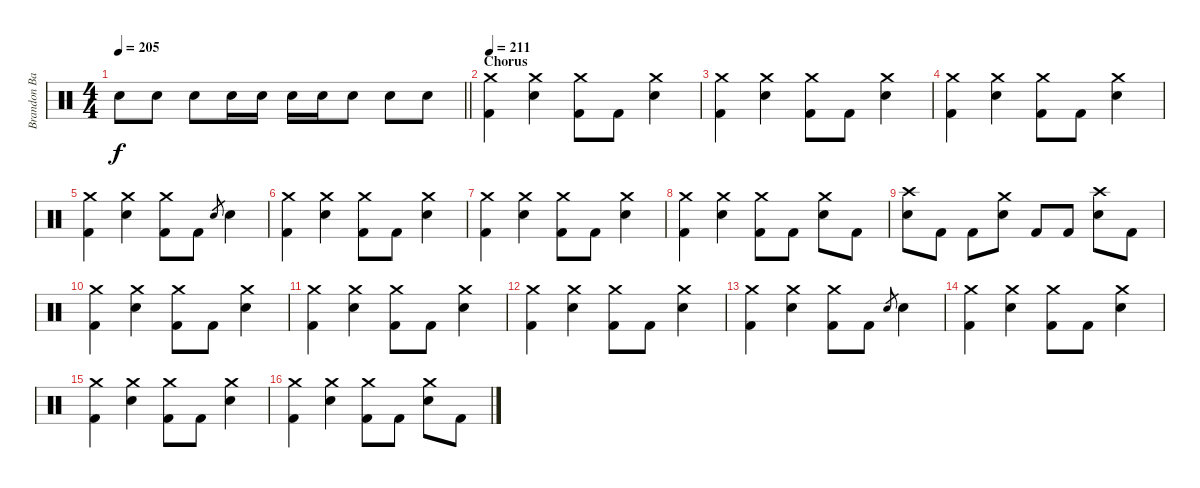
\track ("Brandon Barnes - Drums" "Brandon Ba") {instrument percussion}
\staff {score}
\articulation defaults
\ts (4 4)
\tempo 205
\clef neutral
\barLineRight lightlight
\ks c "Electric Snare (hit)".8{dy f volume 10} "Electric Snare (hit)".8 "Electric Snare (hit)".8{volume 11} "Electric Snare (hit)".16{volume 9} "Electric Snare (hit)".16 "Electric Snare (hit)".16{volume 12} "Electric Snare (hit)".16 "Electric Snare (hit)".8 "Electric Snare (hit)".8 "Electric Snare (hit)".8
|
\section ("" "Chorus")
\tempo 211
("Crash medium (hit)" "Kick (hit) 2").4 ("Crash medium (hit)" "Electric Snare (hit)").4 ("Crash medium (hit)" "Kick (hit) 2").8 "Kick (hit) 2".8 ("Crash medium (hit)" "Electric Snare (hit)").4 |
("Crash medium (hit)" "Kick (hit) 2").4 ("Crash medium (hit)" "Electric Snare (hit)").4 ("Crash medium (hit)" "Kick (hit) 2").8 "Kick (hit) 2".8 ("Crash medium (hit)" "Electric Snare (hit)").4 |
("Crash medium (hit)" "Kick (hit) 2").4 ("Crash medium (hit)" "Electric Snare (hit)").4 ("Crash medium (hit)" "Kick (hit) 2").8 "Kick (hit) 2".8 ("Crash medium (hit)" "Electric Snare (hit)").4 |
("Crash medium (hit)" "Kick (hit) 2").4 ("Crash medium (hit)" "Electric Snare (hit)").4 ("Crash medium (hit)" "Kick (hit) 2").8 "Kick (hit) 2".8 "Electric Snare (hit)".8{gr} "Electric Snare (hit)".4 |
("Crash medium (hit)" "Kick (hit) 2").4 ("Crash medium (hit)" "Electric Snare (hit)").4 ("Crash medium (hit)" "Kick (hit) 2").8 "Kick (hit) 2".8 ("Crash medium (hit)" "Electric Snare (hit)").4 |
("Crash medium (hit)" "Kick (hit) 2").4 ("Crash medium (hit)" "Electric Snare (hit)").4 ("Crash medium (hit)" "Kick (hit) 2").8 "Kick (hit) 2".8 ("Crash medium (hit)" "Electric Snare (hit)").4 |
("Crash medium (hit)" "Kick (hit) 2").4 ("Crash medium (hit)" "Electric Snare (hit)").4 ("Crash medium (hit)" "Kick (hit) 2").8 "Kick (hit) 2".8 ("Crash medium (hit)" "Electric Snare (hit)").8 "Kick (hit) 2".8 |
("Crash high (hit)" "Electric Snare (hit)").8 "Kick (hit) 2".8 "Kick (hit) 2".8 ("Crash medium (hit)" "Electric Snare (hit)").8 "Kick (hit) 2".8 "Kick (hit) 2".8 ("Crash high (hit)" "Electric Snare (hit)").8 "Kick (hit) 2".8 |
("Crash medium (hit)" "Kick (hit) 2").4 ("Crash medium (hit)" "Electric Snare (hit)").4 ("Crash medium (hit)" "Kick (hit) 2").8 "Kick (hit) 2".8 ("Crash medium (hit)" "Electric Snare (hit)").4 |
("Crash medium (hit)" "Kick (hit) 2").4 ("Crash medium (hit)" "Electric Snare (hit)").4 ("Crash medium (hit)" "Kick (hit) 2").8 "Kick (hit) 2".8 ("Crash medium (hit)" "Electric Snare (hit)").4 |
("Crash medium (hit)" "Kick (hit) 2").4 ("Crash medium (hit)" "Electric Snare (hit)").4 ("Crash medium (hit)" "Kick (hit) 2").8 "Kick (hit) 2".8 ("Crash medium (hit)" "Electric Snare (hit)").4 |
("Crash medium (hit)" "Kick (hit) 2").4 ("Crash medium (hit)" "Electric Snare (hit)").4 ("Crash medium (hit)" "Kick (hit) 2").8 "Kick (hit) 2".8 "Electric Snare (hit)".8{gr} "Electric Snare (hit)".4 |
("Crash medium (hit)" "Kick (hit) 2").4 ("Crash medium (hit)" "Electric Snare (hit)").4 ("Crash medium (hit)" "Kick (hit) 2").8 "Kick (hit) 2".8 ("Crash medium (hit)" "Electric Snare (hit)").4 |
("Crash medium (hit)" "Kick (hit) 2").4 ("Crash medium (hit)" "Electric Snare (hit)").4 ("Crash medium (hit)" "Kick (hit) 2").8 "Kick (hit) 2".8 ("Crash medium (hit)" "Electric Snare (hit)").4 |
("Crash medium (hit)" "Kick (hit) 2").4 ("Crash medium (hit)" "Electric Snare (hit)").4 ("Crash medium (hit)" "Kick (hit) 2").8 "Kick (hit) 2".8 ("Crash medium (hit)" "Electric Snare (hit)").8 "Kick (hit) 2".8
